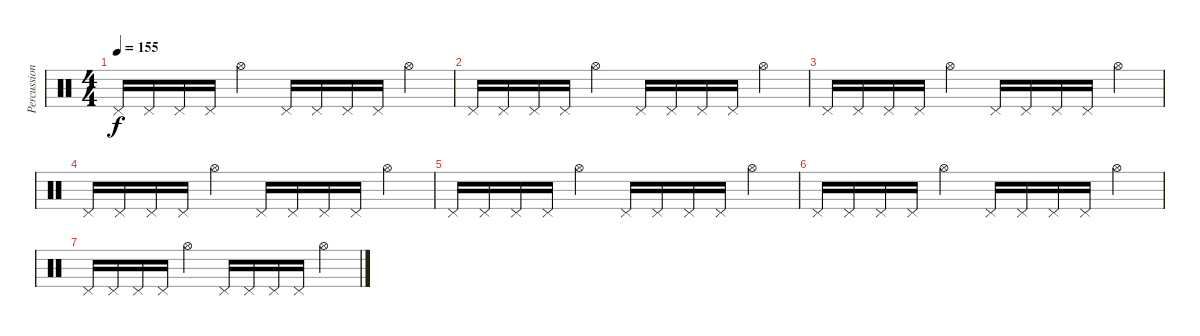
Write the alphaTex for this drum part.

\track ("Percussion" "Percussion") {instrument percussion}
\staff {score}
\articulation defaults
\ts (4 4)
\tempo 155
\clef neutral
\ks c "Pedal Hi-Hat (hit)".16{dy f} "Pedal Hi-Hat (hit)".16 "Pedal Hi-Hat (hit)".16 "Pedal Hi-Hat (hit)".16 "Hi-Hat (open)".4 "Pedal Hi-Hat (hit)".16 "Pedal Hi-Hat (hit)".16 "Pedal Hi-Hat (hit)".16 "Pedal Hi-Hat (hit)".16 "Hi-Hat (open)".4
|
"Pedal Hi-Hat (hit)".16 "Pedal Hi-Hat (hit)".16 "Pedal Hi-Hat (hit)".16 "Pedal Hi-Hat (hit)".16 "Hi-Hat (open)".4 "Pedal Hi-Hat (hit)".16 "Pedal Hi-Hat (hit)".16 "Pedal Hi-Hat (hit)".16 "Pedal Hi-Hat (hit)".16 "Hi-Hat (open)".4 |
"Pedal Hi-Hat (hit)".16 "Pedal Hi-Hat (hit)".16 "Pedal Hi-Hat (hit)".16 "Pedal Hi-Hat (hit)".16 "Hi-Hat (open)".4 "Pedal Hi-Hat (hit)".16 "Pedal Hi-Hat (hit)".16 "Pedal Hi-Hat (hit)".16 "Pedal Hi-Hat (hit)".16 "Hi-Hat (open)".4 |
"Pedal Hi-Hat (hit)".16 "Pedal Hi-Hat (hit)".16 "Pedal Hi-Hat (hit)".16 "Pedal Hi-Hat (hit)".16 "Hi-Hat (open)".4 "Pedal Hi-Hat (hit)".16 "Pedal Hi-Hat (hit)".16 "Pedal Hi-Hat (hit)".16 "Pedal Hi-Hat (hit)".16 "Hi-Hat (open)".4 |
"Pedal Hi-Hat (hit)".16 "Pedal Hi-Hat (hit)".16 "Pedal Hi-Hat (hit)".16 "Pedal Hi-Hat (hit)".16 "Hi-Hat (open)".4 "Pedal Hi-Hat (hit)".16 "Pedal Hi-Hat (hit)".16 "Pedal Hi-Hat (hit)".16 "Pedal Hi-Hat (hit)".16 "Hi-Hat (open)".4 |
"Pedal Hi-Hat (hit)".16 "Pedal Hi-Hat (hit)".16 "Pedal Hi-Hat (hit)".16 "Pedal Hi-Hat (hit)".16 "Hi-Hat (open)".4 "Pedal Hi-Hat (hit)".16 "Pedal Hi-Hat (hit)".16 "Pedal Hi-Hat (hit)".16 "Pedal Hi-Hat (hit)".16 "Hi-Hat (open)".4 |
"Pedal Hi-Hat (hit)".16 "Pedal Hi-Hat (hit)".16 "Pedal Hi-Hat (hit)".16 "Pedal Hi-Hat (hit)".16 "Hi-Hat (open)".4 "Pedal Hi-Hat (hit)".16 "Pedal Hi-Hat (hit)".16 "Pedal Hi-Hat (hit)".16 "Pedal Hi-Hat (hit)".16 "Hi-Hat (open)".4
